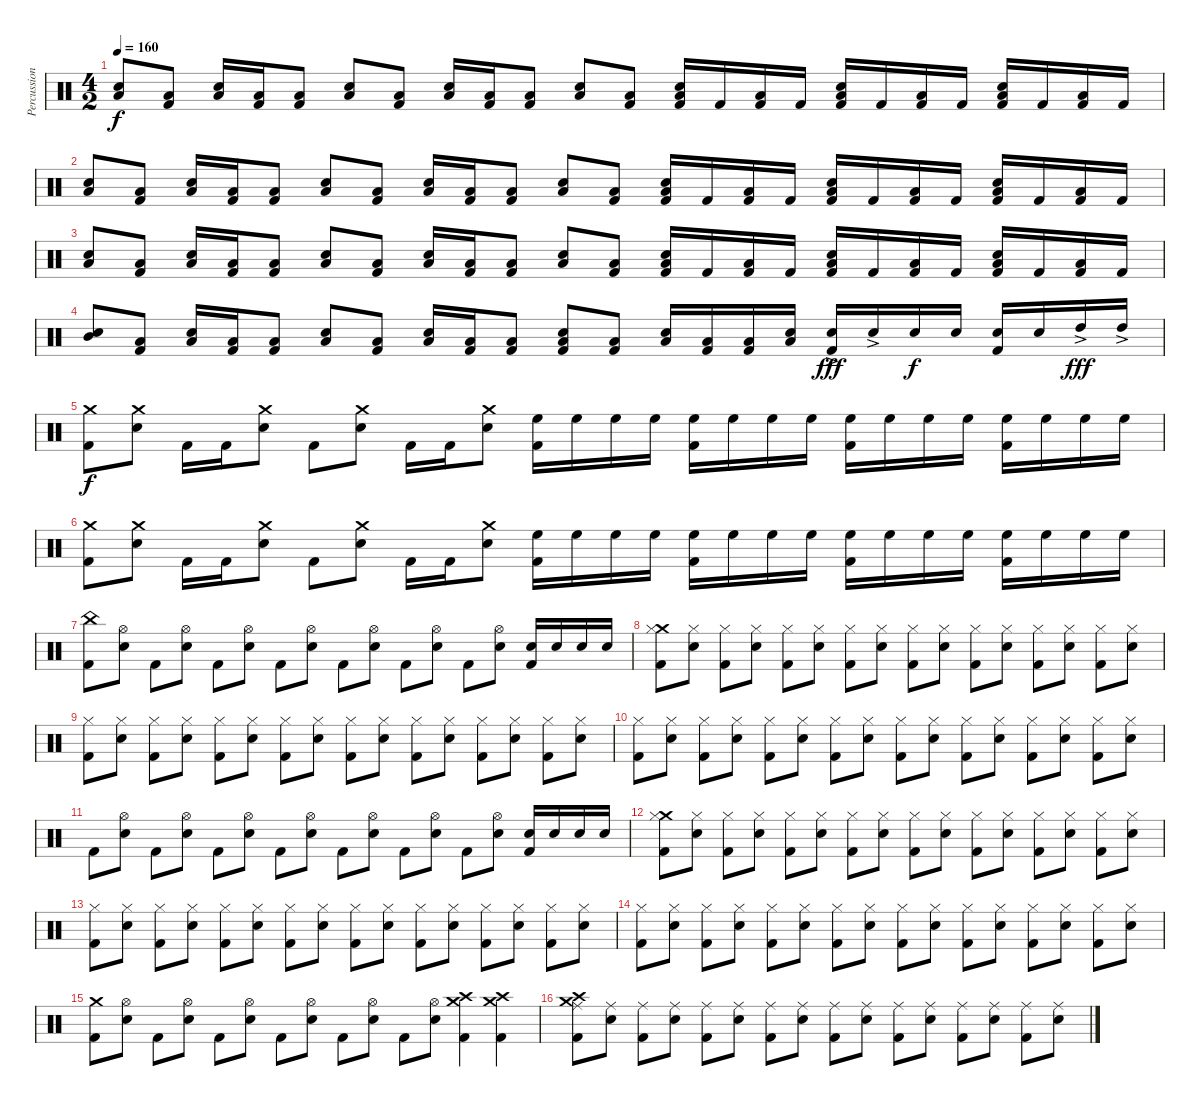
\track ("Percussion" "Percussion") {instrument percussion}
\staff {score}
\articulation defaults
\ts (4 2)
\tempo 160
\clef neutral
\ks c
("Low Floor Tom (hit)" "Snare (hit) 2").8{dy f} ("Low Floor Tom (hit)" "Kick (hit) 2").8 ("Low Floor Tom (hit)" "Snare (hit) 2").16 ("Low Floor Tom (hit)" "Kick (hit) 2").16 ("Low Floor Tom (hit)" "Kick (hit) 2").8 ("Low Floor Tom (hit)" "Snare (hit) 2").8 ("Low Floor Tom (hit)" "Kick (hit) 2").8 ("Low Floor Tom (hit)" "Snare (hit) 2").16 ("Low Floor Tom (hit)" "Kick (hit) 2").16 ("Low Floor Tom (hit)" "Kick (hit) 2").8 ("Low Floor Tom (hit)" "Snare (hit) 2").8 ("Low Floor Tom (hit)" "Kick (hit) 2").8 ("Low Floor Tom (hit)" "Kick (hit) 2" "Snare (hit) 2").16 "Kick (hit) 2".16 ("Low Floor Tom (hit)" "Kick (hit) 2").16 "Kick (hit) 2".16 ("Low Floor Tom (hit)" "Kick (hit) 2" "Snare (hit) 2").16 "Kick (hit) 2".16 ("Low Floor Tom (hit)" "Kick (hit) 2").16 "Kick (hit) 2".16 ("Low Floor Tom (hit)" "Kick (hit) 2" "Snare (hit) 2").16 "Kick (hit) 2".16 ("Low Floor Tom (hit)" "Kick (hit) 2").16 "Kick (hit) 2".16 |
("Low Floor Tom (hit)" "Snare (hit) 2").8 ("Low Floor Tom (hit)" "Kick (hit) 2").8 ("Low Floor Tom (hit)" "Snare (hit) 2").16 ("Low Floor Tom (hit)" "Kick (hit) 2").16 ("Low Floor Tom (hit)" "Kick (hit) 2").8 ("Low Floor Tom (hit)" "Snare (hit) 2").8 ("Low Floor Tom (hit)" "Kick (hit) 2").8 ("Low Floor Tom (hit)" "Snare (hit) 2").16 ("Low Floor Tom (hit)" "Kick (hit) 2").16 ("Low Floor Tom (hit)" "Kick (hit) 2").8 ("Low Floor Tom (hit)" "Snare (hit) 2").8 ("Low Floor Tom (hit)" "Kick (hit) 2").8 ("Low Floor Tom (hit)" "Kick (hit) 2" "Snare (hit) 2").16 "Kick (hit) 2".16 ("Low Floor Tom (hit)" "Kick (hit) 2").16 "Kick (hit) 2".16 ("Low Floor Tom (hit)" "Kick (hit) 2" "Snare (hit) 2").16 "Kick (hit) 2".16 ("Low Floor Tom (hit)" "Kick (hit) 2").16 "Kick (hit) 2".16 ("Low Floor Tom (hit)" "Kick (hit) 2" "Snare (hit) 2").16 "Kick (hit) 2".16 ("Low Floor Tom (hit)" "Kick (hit) 2").16 "Kick (hit) 2".16 |
("Low Floor Tom (hit)" "Snare (hit) 2").8 ("Low Floor Tom (hit)" "Kick (hit) 2").8 ("Low Floor Tom (hit)" "Snare (hit) 2").16 ("Low Floor Tom (hit)" "Kick (hit) 2").16 ("Low Floor Tom (hit)" "Kick (hit) 2").8 ("Low Floor Tom (hit)" "Snare (hit) 2").8 ("Low Floor Tom (hit)" "Kick (hit) 2").8 ("Low Floor Tom (hit)" "Snare (hit) 2").16 ("Low Floor Tom (hit)" "Kick (hit) 2").16 ("Low Floor Tom (hit)" "Kick (hit) 2").8 ("Low Floor Tom (hit)" "Snare (hit) 2").8 ("Low Floor Tom (hit)" "Kick (hit) 2").8 ("Low Floor Tom (hit)" "Kick (hit) 2" "Snare (hit) 2").16 "Kick (hit) 2".16 ("Low Floor Tom (hit)" "Kick (hit) 2").16 "Kick (hit) 2".16 ("Low Floor Tom (hit)" "Kick (hit) 2" "Snare (hit) 2").16 "Kick (hit) 2".16 ("Low Floor Tom (hit)" "Kick (hit) 2").16 "Kick (hit) 2".16 ("Low Floor Tom (hit)" "Kick (hit) 2" "Snare (hit) 2").16 "Kick (hit) 2".16 ("Low Floor Tom (hit)" "Kick (hit) 2").16 "Kick (hit) 2".16 |
("Mid Tom (hit)" "Snare (hit) 2").8 ("Low Floor Tom (hit)" "Kick (hit) 2").8 ("Low Floor Tom (hit)" "Snare (hit) 2").16 ("Low Floor Tom (hit)" "Kick (hit) 2").16 ("Low Floor Tom (hit)" "Kick (hit) 2").8 ("Low Floor Tom (hit)" "Snare (hit) 2").8 ("Low Floor Tom (hit)" "Kick (hit) 2").8 ("Low Floor Tom (hit)" "Snare (hit) 2").16 ("Low Floor Tom (hit)" "Kick (hit) 2").16 ("Low Floor Tom (hit)" "Kick (hit) 2").8 ("Low Floor Tom (hit)" "Kick (hit) 2" "Snare (hit) 2").8 ("Low Floor Tom (hit)" "Kick (hit) 2").8 ("Low Floor Tom (hit)" "Snare (hit) 2").16 ("Low Floor Tom (hit)" "Kick (hit) 2").16 ("Low Floor Tom (hit)" "Kick (hit) 2").16 ("Low Floor Tom (hit)" "Snare (hit) 2").16 ("Kick (hit) 2" "Snare (hit) 2"{ac}).16{dy fff} "Snare (hit) 2"{ac}.16 "Snare (hit) 2".16{dy f} "Snare (hit) 2".16 ("Kick (hit) 2" "Snare (hit) 2").16 "Snare (hit) 2".16 "High Tom (hit)"{ac}.16{dy fff} "High Tom (hit)"{ac}.16 |
("Crash medium (hit)" "Kick (hit) 2").8{dy f} ("Crash medium (hit)" "Snare (hit) 2").8 "Kick (hit) 2".16 "Kick (hit) 2".16 ("Crash medium (hit)" "Snare (hit) 2").8 "Kick (hit) 2".8 ("Crash medium (hit)" "Snare (hit) 2").8 "Kick (hit) 2".16 "Kick (hit) 2".16 ("Crash medium (hit)" "Snare (hit) 2").8 ("High Floor Tom (hit)" "Kick (hit) 2").16 "High Floor Tom (hit)".16 "High Floor Tom (hit)".16 "High Floor Tom (hit)".16 ("High Floor Tom (hit)" "Kick (hit) 2").16 "High Floor Tom (hit)".16 "High Floor Tom (hit)".16 "High Floor Tom (hit)".16 ("High Floor Tom (hit)" "Kick (hit) 2").16 "High Floor Tom (hit)".16 "High Floor Tom (hit)".16 "High Floor Tom (hit)".16 ("High Floor Tom (hit)" "Kick (hit) 2").16 "High Floor Tom (hit)".16 "High Floor Tom (hit)".16 "High Floor Tom (hit)".16 |
("Crash medium (hit)" "Kick (hit) 2").8 ("Crash medium (hit)" "Snare (hit) 2").8 "Kick (hit) 2".16 "Kick (hit) 2".16 ("Crash medium (hit)" "Snare (hit) 2").8 "Kick (hit) 2".8 ("Crash medium (hit)" "Snare (hit) 2").8 "Kick (hit) 2".16 "Kick (hit) 2".16 ("Crash medium (hit)" "Snare (hit) 2").8 ("High Floor Tom (hit)" "Kick (hit) 2").16 "High Floor Tom (hit)".16 "High Floor Tom (hit)".16 "High Floor Tom (hit)".16 ("High Floor Tom (hit)" "Kick (hit) 2").16 "High Floor Tom (hit)".16 "High Floor Tom (hit)".16 "High Floor Tom (hit)".16 ("High Floor Tom (hit)" "Kick (hit) 2").16 "High Floor Tom (hit)".16 "High Floor Tom (hit)".16 "High Floor Tom (hit)".16 ("High Floor Tom (hit)" "Kick (hit) 2").16 "High Floor Tom (hit)".16 "High Floor Tom (hit)".16 "High Floor Tom (hit)".16 |
("China (hit)" "Kick (hit) 2").8 ("Hi-Hat (open)" "Snare (hit) 2").8 "Kick (hit) 2".8 ("Hi-Hat (open)" "Snare (hit) 2").8 "Kick (hit) 2".8 ("Hi-Hat (open)" "Snare (hit) 2").8 "Kick (hit) 2".8 ("Hi-Hat (open)" "Snare (hit) 2").8 "Kick (hit) 2".8 ("Hi-Hat (open)" "Snare (hit) 2").8 "Kick (hit) 2".8 ("Hi-Hat (open)" "Snare (hit) 2").8 "Kick (hit) 2".8 ("Hi-Hat (open)" "Snare (hit) 2").8 ("Snare (hit) 2" "Kick (hit) 2").16 "Snare (hit) 2".16 "Snare (hit) 2".16 "Snare (hit) 2".16 |
("Crash medium (hit)" "Hi-Hat (closed)" "Kick (hit) 2").8 ("Hi-Hat (closed)" "Snare (hit) 2").8 ("Hi-Hat (closed)" "Kick (hit) 2").8 ("Hi-Hat (closed)" "Snare (hit) 2").8 ("Hi-Hat (closed)" "Kick (hit) 2").8 ("Hi-Hat (closed)" "Snare (hit) 2").8 ("Hi-Hat (closed)" "Kick (hit) 2").8 ("Hi-Hat (closed)" "Snare (hit) 2").8 ("Hi-Hat (closed)" "Kick (hit) 2").8 ("Hi-Hat (closed)" "Snare (hit) 2").8 ("Hi-Hat (closed)" "Kick (hit) 2").8 ("Hi-Hat (closed)" "Snare (hit) 2").8 ("Hi-Hat (closed)" "Kick (hit) 2").8 ("Hi-Hat (closed)" "Snare (hit) 2").8 ("Hi-Hat (closed)" "Kick (hit) 2").8 ("Hi-Hat (closed)" "Snare (hit) 2").8 |
("Hi-Hat (closed)" "Kick (hit) 2").8 ("Hi-Hat (closed)" "Snare (hit) 2").8 ("Hi-Hat (closed)" "Kick (hit) 2").8 ("Hi-Hat (closed)" "Snare (hit) 2").8 ("Hi-Hat (closed)" "Kick (hit) 2").8 ("Hi-Hat (closed)" "Snare (hit) 2").8 ("Hi-Hat (closed)" "Kick (hit) 2").8 ("Hi-Hat (closed)" "Snare (hit) 2").8 ("Hi-Hat (closed)" "Kick (hit) 2").8 ("Hi-Hat (closed)" "Snare (hit) 2").8 ("Hi-Hat (closed)" "Kick (hit) 2").8 ("Hi-Hat (closed)" "Snare (hit) 2").8 ("Hi-Hat (closed)" "Kick (hit) 2").8 ("Hi-Hat (closed)" "Snare (hit) 2").8 ("Hi-Hat (closed)" "Kick (hit) 2").8 ("Hi-Hat (closed)" "Snare (hit) 2").8 |
("Hi-Hat (closed)" "Kick (hit) 2").8 ("Hi-Hat (closed)" "Snare (hit) 2").8 ("Hi-Hat (closed)" "Kick (hit) 2").8 ("Hi-Hat (closed)" "Snare (hit) 2").8 ("Hi-Hat (closed)" "Kick (hit) 2").8 ("Hi-Hat (closed)" "Snare (hit) 2").8 ("Hi-Hat (closed)" "Kick (hit) 2").8 ("Hi-Hat (closed)" "Snare (hit) 2").8 ("Hi-Hat (closed)" "Kick (hit) 2").8 ("Hi-Hat (closed)" "Snare (hit) 2").8 ("Hi-Hat (closed)" "Kick (hit) 2").8 ("Hi-Hat (closed)" "Snare (hit) 2").8 ("Hi-Hat (closed)" "Kick (hit) 2").8 ("Hi-Hat (closed)" "Snare (hit) 2").8 ("Hi-Hat (closed)" "Kick (hit) 2").8 ("Hi-Hat (closed)" "Snare (hit) 2").8 |
"Kick (hit) 2".8 ("Hi-Hat (open)" "Snare (hit) 2").8 "Kick (hit) 2".8 ("Hi-Hat (open)" "Snare (hit) 2").8 "Kick (hit) 2".8 ("Hi-Hat (open)" "Snare (hit) 2").8 "Kick (hit) 2".8 ("Hi-Hat (open)" "Snare (hit) 2").8 "Kick (hit) 2".8 ("Hi-Hat (open)" "Snare (hit) 2").8 "Kick (hit) 2".8 ("Hi-Hat (open)" "Snare (hit) 2").8 "Kick (hit) 2".8 ("Hi-Hat (open)" "Snare (hit) 2").8 ("Snare (hit) 2" "Kick (hit) 2").16 "Snare (hit) 2".16 "Snare (hit) 2".16 "Snare (hit) 2".16 |
("Crash medium (hit)" "Hi-Hat (closed)" "Kick (hit) 2").8 ("Hi-Hat (closed)" "Snare (hit) 2").8 ("Hi-Hat (closed)" "Kick (hit) 2").8 ("Hi-Hat (closed)" "Snare (hit) 2").8 ("Hi-Hat (closed)" "Kick (hit) 2").8 ("Hi-Hat (closed)" "Snare (hit) 2").8 ("Hi-Hat (closed)" "Kick (hit) 2").8 ("Hi-Hat (closed)" "Snare (hit) 2").8 ("Hi-Hat (closed)" "Kick (hit) 2").8 ("Hi-Hat (closed)" "Snare (hit) 2").8 ("Hi-Hat (closed)" "Kick (hit) 2").8 ("Hi-Hat (closed)" "Snare (hit) 2").8 ("Hi-Hat (closed)" "Kick (hit) 2").8 ("Hi-Hat (closed)" "Snare (hit) 2").8 ("Hi-Hat (closed)" "Kick (hit) 2").8 ("Hi-Hat (closed)" "Snare (hit) 2").8 |
("Hi-Hat (closed)" "Kick (hit) 2").8 ("Hi-Hat (closed)" "Snare (hit) 2").8 ("Hi-Hat (closed)" "Kick (hit) 2").8 ("Hi-Hat (closed)" "Snare (hit) 2").8 ("Hi-Hat (closed)" "Kick (hit) 2").8 ("Hi-Hat (closed)" "Snare (hit) 2").8 ("Hi-Hat (closed)" "Kick (hit) 2").8 ("Hi-Hat (closed)" "Snare (hit) 2").8 ("Hi-Hat (closed)" "Kick (hit) 2").8 ("Hi-Hat (closed)" "Snare (hit) 2").8 ("Hi-Hat (closed)" "Kick (hit) 2").8 ("Hi-Hat (closed)" "Snare (hit) 2").8 ("Hi-Hat (closed)" "Kick (hit) 2").8 ("Hi-Hat (closed)" "Snare (hit) 2").8 ("Hi-Hat (closed)" "Kick (hit) 2").8 ("Hi-Hat (closed)" "Snare (hit) 2").8 |
("Hi-Hat (closed)" "Kick (hit) 2").8 ("Hi-Hat (closed)" "Snare (hit) 2").8 ("Hi-Hat (closed)" "Kick (hit) 2").8 ("Hi-Hat (closed)" "Snare (hit) 2").8 ("Hi-Hat (closed)" "Kick (hit) 2").8 ("Hi-Hat (closed)" "Snare (hit) 2").8 ("Hi-Hat (closed)" "Kick (hit) 2").8 ("Hi-Hat (closed)" "Snare (hit) 2").8 ("Hi-Hat (closed)" "Kick (hit) 2").8 ("Hi-Hat (closed)" "Snare (hit) 2").8 ("Hi-Hat (closed)" "Kick (hit) 2").8 ("Hi-Hat (closed)" "Snare (hit) 2").8 ("Hi-Hat (closed)" "Kick (hit) 2").8 ("Hi-Hat (closed)" "Snare (hit) 2").8 ("Hi-Hat (closed)" "Kick (hit) 2").8 ("Hi-Hat (closed)" "Snare (hit) 2").8 |
("Crash medium (hit)" "Kick (hit) 2").8 ("Hi-Hat (open)" "Snare (hit) 2").8 "Kick (hit) 2".8 ("Hi-Hat (open)" "Snare (hit) 2").8 "Kick (hit) 2".8 ("Hi-Hat (open)" "Snare (hit) 2").8 "Kick (hit) 2".8 ("Hi-Hat (open)" "Snare (hit) 2").8 "Kick (hit) 2".8 ("Hi-Hat (open)" "Snare (hit) 2").8 "Kick (hit) 2".8 ("Hi-Hat (open)" "Snare (hit) 2").8 ("Crash high (hit)" "Crash medium (hit)" "Kick (hit) 2").4 ("Crash high (hit)" "Crash medium (hit)" "Kick (hit) 2").4 |
("Crash high (hit)" "Crash medium (hit)" "Ride (middle)" "Kick (hit) 2").8 ("Ride (middle)" "Snare (hit) 2").8 ("Ride (middle)" "Kick (hit) 2").8 ("Ride (middle)" "Snare (hit) 2").8 ("Ride (middle)" "Kick (hit) 2").8 ("Ride (middle)" "Snare (hit) 2").8 ("Ride (middle)" "Kick (hit) 2").8 ("Ride (middle)" "Snare (hit) 2").8 ("Ride (middle)" "Kick (hit) 2").8 ("Ride (middle)" "Snare (hit) 2").8 ("Ride (middle)" "Kick (hit) 2").8 ("Ride (middle)" "Snare (hit) 2").8 ("Ride (middle)" "Kick (hit) 2").8 ("Ride (middle)" "Snare (hit) 2").8 ("Ride (middle)" "Kick (hit) 2").8 ("Ride (middle)" "Snare (hit) 2").8
